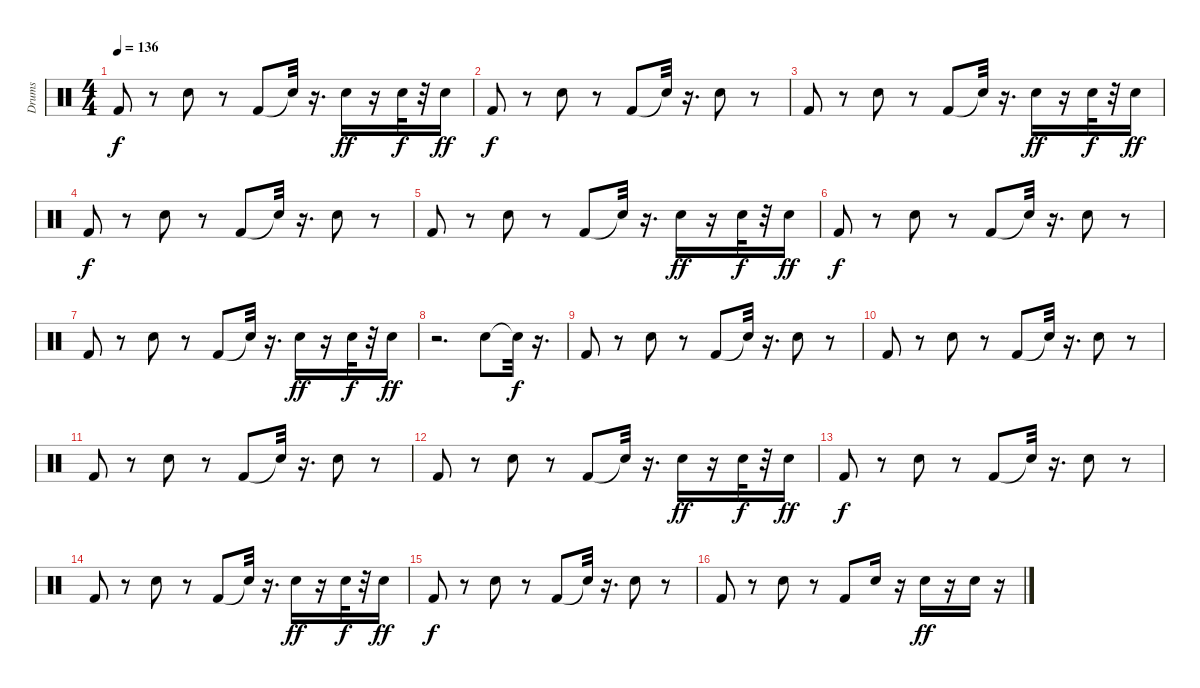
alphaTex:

\track ("Drums" "Drums") {instrument percussion}
\staff {score}
\articulation defaults
\ts (4 4)
\tempo 136
\clef neutral
\ks c "Kick (hit) 2".8{dy f}
r.8 "Electric Snare (hit)".8 r.8 "Kick (hit) 2".8 "Snare (hit)"{t}.32 r.16{d} "Electric Snare (hit)".16{dy ff} r.16 "Electric Snare (hit)".32{dy f} r.32 "Electric Snare (hit)".16{dy ff} |
"Kick (hit) 2".8{dy f} r.8 "Electric Snare (hit)".8 r.8 "Kick (hit) 2".8 "Snare (hit)"{t}.32 r.16{d} "Electric Snare (hit)".8 r.8 |
"Kick (hit) 2".8 r.8 "Electric Snare (hit)".8 r.8 "Kick (hit) 2".8 "Snare (hit)"{t}.32 r.16{d} "Electric Snare (hit)".16{dy ff} r.16 "Electric Snare (hit)".32{dy f} r.32 "Electric Snare (hit)".16{dy ff} |
"Kick (hit) 2".8{dy f} r.8 "Electric Snare (hit)".8 r.8 "Kick (hit) 2".8 "Snare (hit)"{t}.32 r.16{d} "Electric Snare (hit)".8 r.8 |
"Kick (hit) 2".8 r.8 "Electric Snare (hit)".8 r.8 "Kick (hit) 2".8 "Snare (hit)"{t}.32 r.16{d} "Electric Snare (hit)".16{dy ff} r.16 "Electric Snare (hit)".32{dy f} r.32 "Electric Snare (hit)".16{dy ff} |
"Kick (hit) 2".8{dy f} r.8 "Electric Snare (hit)".8 r.8 "Kick (hit) 2".8 "Snare (hit)"{t}.32 r.16{d} "Electric Snare (hit)".8 r.8 |
"Kick (hit) 2".8 r.8 "Electric Snare (hit)".8 r.8 "Kick (hit) 2".8 "Snare (hit)"{t}.32 r.16{d} "Electric Snare (hit)".16{dy ff} r.16 "Electric Snare (hit)".32{dy f} r.32 "Electric Snare (hit)".16{dy ff} |
r.2{d} "Electric Snare (hit)".8 "Snare (hit)"{t}.32{dy f} r.16{d} |
"Kick (hit) 2".8 r.8 "Electric Snare (hit)".8 r.8 "Kick (hit) 2".8 "Snare (hit)"{t}.32 r.16{d} "Electric Snare (hit)".8 r.8 |
"Kick (hit) 2".8 r.8 "Electric Snare (hit)".8 r.8 "Kick (hit) 2".8 "Snare (hit)"{t}.32 r.16{d} "Electric Snare (hit)".8 r.8 |
"Kick (hit) 2".8 r.8 "Electric Snare (hit)".8 r.8 "Kick (hit) 2".8 "Snare (hit)"{t}.32 r.16{d} "Electric Snare (hit)".8 r.8 |
"Kick (hit) 2".8 r.8 "Electric Snare (hit)".8 r.8 "Kick (hit) 2".8 "Snare (hit)"{t}.32 r.16{d} "Electric Snare (hit)".16{dy ff} r.16 "Electric Snare (hit)".32{dy f} r.32 "Electric Snare (hit)".16{dy ff} |
"Kick (hit) 2".8{dy f} r.8 "Electric Snare (hit)".8 r.8 "Kick (hit) 2".8 "Snare (hit)"{t}.32 r.16{d} "Electric Snare (hit)".8 r.8 |
"Kick (hit) 2".8 r.8 "Electric Snare (hit)".8 r.8 "Kick (hit) 2".8 "Snare (hit)"{t}.32 r.16{d} "Electric Snare (hit)".16{dy ff} r.16 "Electric Snare (hit)".32{dy f} r.32 "Electric Snare (hit)".16{dy ff} |
"Kick (hit) 2".8{dy f} r.8 "Electric Snare (hit)".8 r.8 "Kick (hit) 2".8 "Snare (hit)"{t}.32 r.16{d} "Electric Snare (hit)".8 r.8 |
"Kick (hit) 2".8 r.8 "Electric Snare (hit)".8 r.8 "Kick (hit) 2".8 "Electric Snare (hit)".16 r.16 "Electric Snare (hit)".16{dy ff} r.16 "Electric Snare (hit)".16 r.16
